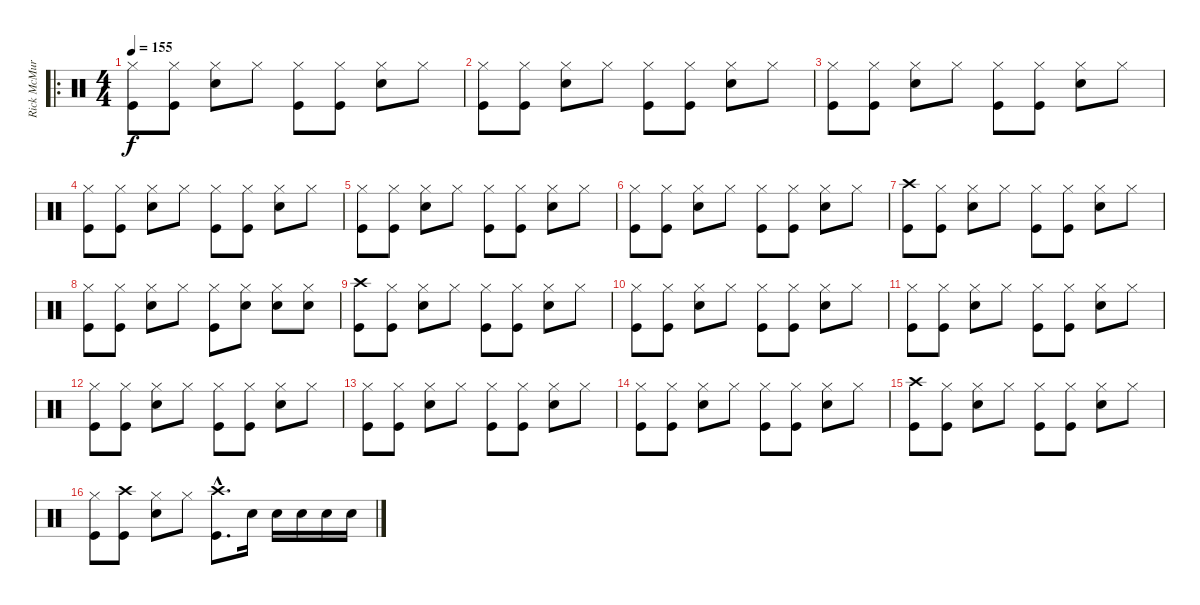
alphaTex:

\track ("Rick McMurray" "Rick McMur") {instrument percussion}
\staff {score}
\articulation defaults
\ro
\ts (4 4)
\tempo 155
\clef neutral
\ks c
("Hi-Hat (closed)" "Kick (hit)").8{dy f} ("Hi-Hat (closed)" "Kick (hit)").8 ("Hi-Hat (closed)" "Snare (hit) 2").8 "Hi-Hat (closed)".8 ("Hi-Hat (closed)" "Kick (hit)").8 ("Hi-Hat (closed)" "Kick (hit)").8 ("Hi-Hat (closed)" "Snare (hit) 2").8 "Hi-Hat (closed)".8 |
("Hi-Hat (closed)" "Kick (hit)").8 ("Hi-Hat (closed)" "Kick (hit)").8 ("Hi-Hat (closed)" "Snare (hit) 2").8 "Hi-Hat (closed)".8 ("Hi-Hat (closed)" "Kick (hit)").8 ("Hi-Hat (closed)" "Kick (hit)").8 ("Hi-Hat (closed)" "Snare (hit) 2").8 "Hi-Hat (closed)".8 |
("Hi-Hat (closed)" "Kick (hit)").8 ("Hi-Hat (closed)" "Kick (hit)").8 ("Hi-Hat (closed)" "Snare (hit) 2").8 "Hi-Hat (closed)".8 ("Hi-Hat (closed)" "Kick (hit)").8 ("Hi-Hat (closed)" "Kick (hit)").8 ("Hi-Hat (closed)" "Snare (hit) 2").8 "Hi-Hat (closed)".8 |
("Hi-Hat (closed)" "Kick (hit)").8 ("Hi-Hat (closed)" "Kick (hit)").8 ("Hi-Hat (closed)" "Snare (hit) 2").8 "Hi-Hat (closed)".8 ("Hi-Hat (closed)" "Kick (hit)").8 ("Hi-Hat (closed)" "Kick (hit)").8 ("Hi-Hat (closed)" "Snare (hit) 2").8 "Hi-Hat (closed)".8 |
("Hi-Hat (closed)" "Kick (hit)").8 ("Hi-Hat (closed)" "Kick (hit)").8 ("Hi-Hat (closed)" "Snare (hit) 2").8 "Hi-Hat (closed)".8 ("Hi-Hat (closed)" "Kick (hit)").8 ("Hi-Hat (closed)" "Kick (hit)").8 ("Hi-Hat (closed)" "Snare (hit) 2").8 "Hi-Hat (closed)".8 |
("Hi-Hat (closed)" "Kick (hit)").8 ("Hi-Hat (closed)" "Kick (hit)").8 ("Hi-Hat (closed)" "Snare (hit) 2").8 "Hi-Hat (closed)".8 ("Hi-Hat (closed)" "Kick (hit)").8 ("Hi-Hat (closed)" "Kick (hit)").8 ("Hi-Hat (closed)" "Snare (hit) 2").8 "Hi-Hat (closed)".8 |
("Crash high (hit)" "Kick (hit)").8 ("Hi-Hat (closed)" "Kick (hit)").8 ("Hi-Hat (closed)" "Snare (hit) 2").8 "Hi-Hat (closed)".8 ("Hi-Hat (closed)" "Kick (hit)").8 ("Hi-Hat (closed)" "Kick (hit)").8 ("Hi-Hat (closed)" "Snare (hit) 2").8 "Hi-Hat (closed)".8 |
("Hi-Hat (closed)" "Kick (hit)").8 ("Hi-Hat (closed)" "Kick (hit)").8 ("Hi-Hat (closed)" "Snare (hit) 2").8 "Hi-Hat (closed)".8 ("Hi-Hat (closed)" "Kick (hit)").8 ("Hi-Hat (closed)" "Snare (hit) 2").8 ("Hi-Hat (closed)" "Snare (hit) 2").8 ("Hi-Hat (closed)" "Snare (hit) 2").8 |
("Crash high (hit)" "Kick (hit)").8 ("Hi-Hat (closed)" "Kick (hit)").8 ("Hi-Hat (closed)" "Snare (hit) 2").8 "Hi-Hat (closed)".8 ("Hi-Hat (closed)" "Kick (hit)").8 ("Hi-Hat (closed)" "Kick (hit)").8 ("Hi-Hat (closed)" "Snare (hit) 2").8 "Hi-Hat (closed)".8 |
("Hi-Hat (closed)" "Kick (hit)").8 ("Hi-Hat (closed)" "Kick (hit)").8 ("Hi-Hat (closed)" "Snare (hit) 2").8 "Hi-Hat (closed)".8 ("Hi-Hat (closed)" "Kick (hit)").8 ("Hi-Hat (closed)" "Kick (hit)").8 ("Hi-Hat (closed)" "Snare (hit) 2").8 "Hi-Hat (closed)".8 |
("Hi-Hat (closed)" "Kick (hit)").8 ("Hi-Hat (closed)" "Kick (hit)").8 ("Hi-Hat (closed)" "Snare (hit) 2").8 "Hi-Hat (closed)".8 ("Hi-Hat (closed)" "Kick (hit)").8 ("Hi-Hat (closed)" "Kick (hit)").8 ("Hi-Hat (closed)" "Snare (hit) 2").8 "Hi-Hat (closed)".8 |
("Hi-Hat (closed)" "Kick (hit)").8 ("Hi-Hat (closed)" "Kick (hit)").8 ("Hi-Hat (closed)" "Snare (hit) 2").8 "Hi-Hat (closed)".8 ("Hi-Hat (closed)" "Kick (hit)").8 ("Hi-Hat (closed)" "Kick (hit)").8 ("Hi-Hat (closed)" "Snare (hit) 2").8 "Hi-Hat (closed)".8 |
("Hi-Hat (closed)" "Kick (hit)").8 ("Hi-Hat (closed)" "Kick (hit)").8 ("Hi-Hat (closed)" "Snare (hit) 2").8 "Hi-Hat (closed)".8 ("Hi-Hat (closed)" "Kick (hit)").8 ("Hi-Hat (closed)" "Kick (hit)").8 ("Hi-Hat (closed)" "Snare (hit) 2").8 "Hi-Hat (closed)".8 |
("Hi-Hat (closed)" "Kick (hit)").8 ("Hi-Hat (closed)" "Kick (hit)").8 ("Hi-Hat (closed)" "Snare (hit) 2").8 "Hi-Hat (closed)".8 ("Hi-Hat (closed)" "Kick (hit)").8 ("Hi-Hat (closed)" "Kick (hit)").8 ("Hi-Hat (closed)" "Snare (hit) 2").8 "Hi-Hat (closed)".8 |
("Crash high (hit)" "Kick (hit)").8 ("Hi-Hat (closed)" "Kick (hit)").8 ("Hi-Hat (closed)" "Snare (hit) 2").8 "Hi-Hat (closed)".8 ("Hi-Hat (closed)" "Kick (hit)").8 ("Hi-Hat (closed)" "Kick (hit)").8 ("Hi-Hat (closed)" "Snare (hit) 2").8 "Hi-Hat (closed)".8 |
("Hi-Hat (closed)" "Kick (hit)").8 ("Crash high (hit)" "Kick (hit)").8 ("Hi-Hat (closed)" "Snare (hit) 2").8 "Hi-Hat (closed)".8 ("Crash high (hit)"{hac} "Kick (hit)"{hac}).8{d} "Snare (hit) 2".16 "Snare (hit) 2".16 "Snare (hit) 2".16 "Snare (hit) 2".16 "Snare (hit) 2".16
